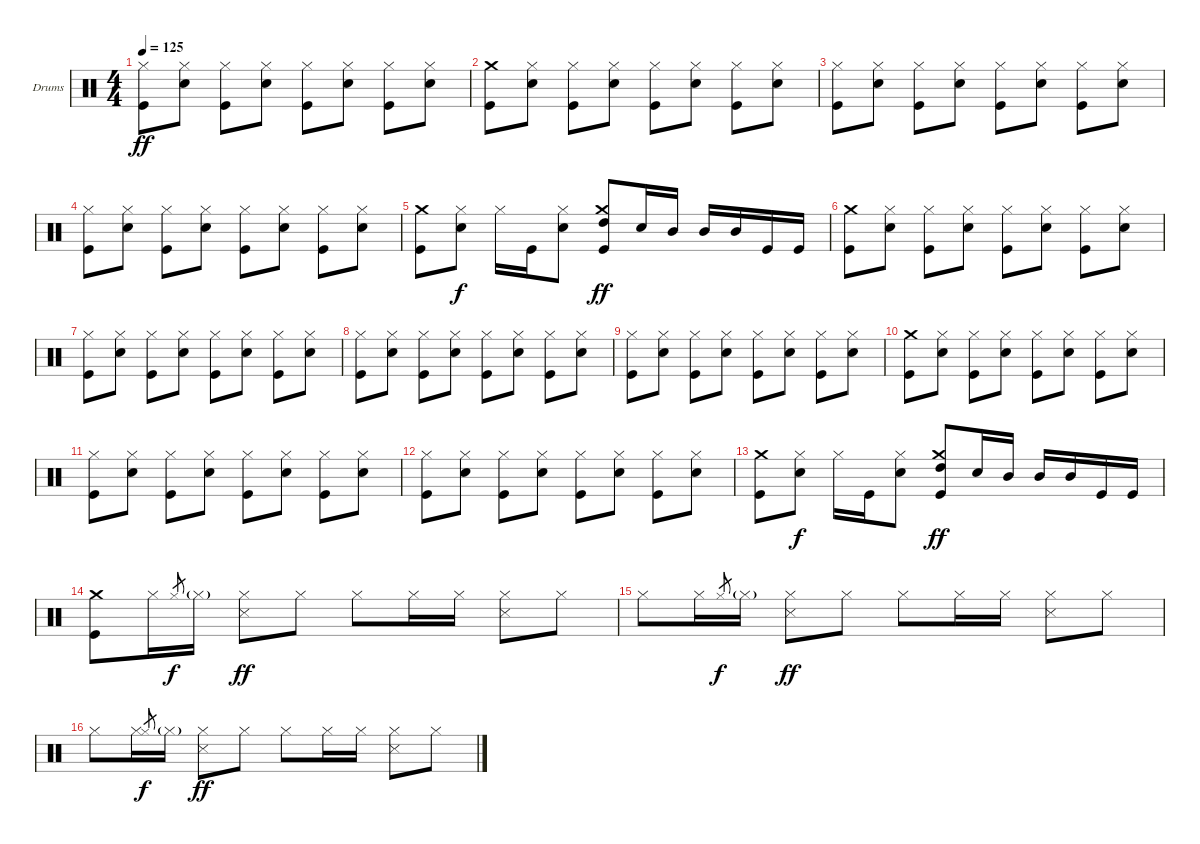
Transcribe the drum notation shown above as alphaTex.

\defaultSystemsLayout 4
\bracketExtendMode groupsimilarinstruments
\firstSystemTrackNameOrientation horizontal
\otherSystemsTrackNameOrientation horizontal
\track ("Drumkit" "Drums") {instrument percussion}
\staff {score}
\articulation defaults
\ts (4 4)
\tempo 125
\clef neutral
\ks c
("Kick (hit)" "Hi-Hat (closed)").8{dy ff} ("Snare (hit) 2" "Hi-Hat (closed)").8 ("Kick (hit)" "Hi-Hat (closed)").8 ("Snare (hit) 2" "Hi-Hat (closed)").8 ("Kick (hit)" "Hi-Hat (closed)").8 ("Snare (hit) 2" "Hi-Hat (closed)").8 ("Kick (hit)" "Hi-Hat (closed)").8 ("Snare (hit) 2" "Hi-Hat (closed)").8 |
("Kick (hit)" "Crash medium (hit)").8 ("Snare (hit) 2" "Hi-Hat (closed)").8 ("Kick (hit)" "Hi-Hat (closed)").8 ("Snare (hit) 2" "Hi-Hat (closed)").8 ("Kick (hit)" "Hi-Hat (closed)").8 ("Snare (hit) 2" "Hi-Hat (closed)").8 ("Kick (hit)" "Hi-Hat (closed)").8 ("Snare (hit) 2" "Hi-Hat (closed)").8 |
("Kick (hit)" "Hi-Hat (closed)").8 ("Snare (hit) 2" "Hi-Hat (closed)").8 ("Kick (hit)" "Hi-Hat (closed)").8 ("Snare (hit) 2" "Hi-Hat (closed)").8 ("Kick (hit)" "Hi-Hat (closed)").8 ("Snare (hit) 2" "Hi-Hat (closed)").8 ("Kick (hit)" "Hi-Hat (closed)").8 ("Snare (hit) 2" "Hi-Hat (closed)").8 |
("Kick (hit)" "Hi-Hat (closed)").8 ("Snare (hit) 2" "Hi-Hat (closed)").8 ("Kick (hit)" "Hi-Hat (closed)").8 ("Snare (hit) 2" "Hi-Hat (closed)").8 ("Kick (hit)" "Hi-Hat (closed)").8 ("Snare (hit) 2" "Hi-Hat (closed)").8 ("Kick (hit)" "Hi-Hat (closed)").8 ("Snare (hit) 2" "Hi-Hat (closed)").8 |
("Kick (hit)" "Crash medium (hit)").8 ("Snare (hit) 2" "Hi-Hat (closed)").8{dy f} "Hi-Hat (closed)".16 "Kick (hit)".16 ("Snare (hit) 2" "Hi-Hat (closed)").8 ("Kick (hit)" "Crash medium (hit)" "High Tom (hit)").8{dy ff} "Snare (hit) 2".16 "Mid Tom (hit)".16 "Mid Tom (hit)".16 "Mid Tom (hit)".16 "Kick (hit)".16 "Kick (hit)".16 |
("Kick (hit)" "Crash medium (hit)").8 ("Snare (hit) 2" "Hi-Hat (closed)").8 ("Kick (hit)" "Hi-Hat (closed)").8 ("Snare (hit) 2" "Hi-Hat (closed)").8 ("Kick (hit)" "Hi-Hat (closed)").8 ("Snare (hit) 2" "Hi-Hat (closed)").8 ("Kick (hit)" "Hi-Hat (closed)").8 ("Snare (hit) 2" "Hi-Hat (closed)").8 |
("Kick (hit)" "Hi-Hat (closed)").8 ("Snare (hit) 2" "Hi-Hat (closed)").8 ("Kick (hit)" "Hi-Hat (closed)").8 ("Snare (hit) 2" "Hi-Hat (closed)").8 ("Kick (hit)" "Hi-Hat (closed)").8 ("Snare (hit) 2" "Hi-Hat (closed)").8 ("Kick (hit)" "Hi-Hat (closed)").8 ("Snare (hit) 2" "Hi-Hat (closed)").8 |
("Kick (hit)" "Hi-Hat (closed)").8 ("Snare (hit) 2" "Hi-Hat (closed)").8 ("Kick (hit)" "Hi-Hat (closed)").8 ("Snare (hit) 2" "Hi-Hat (closed)").8 ("Kick (hit)" "Hi-Hat (closed)").8 ("Snare (hit) 2" "Hi-Hat (closed)").8 ("Kick (hit)" "Hi-Hat (closed)").8 ("Snare (hit) 2" "Hi-Hat (closed)").8 |
("Kick (hit)" "Hi-Hat (closed)").8 ("Snare (hit) 2" "Hi-Hat (closed)").8 ("Kick (hit)" "Hi-Hat (closed)").8 ("Snare (hit) 2" "Hi-Hat (closed)").8 ("Kick (hit)" "Hi-Hat (closed)").8 ("Snare (hit) 2" "Hi-Hat (closed)").8 ("Kick (hit)" "Hi-Hat (closed)").8 ("Snare (hit) 2" "Hi-Hat (closed)").8 |
("Kick (hit)" "Crash medium (hit)").8 ("Snare (hit) 2" "Hi-Hat (closed)").8 ("Kick (hit)" "Hi-Hat (closed)").8 ("Snare (hit) 2" "Hi-Hat (closed)").8 ("Kick (hit)" "Hi-Hat (closed)").8 ("Snare (hit) 2" "Hi-Hat (closed)").8 ("Kick (hit)" "Hi-Hat (closed)").8 ("Snare (hit) 2" "Hi-Hat (closed)").8 |
("Kick (hit)" "Hi-Hat (closed)").8 ("Snare (hit) 2" "Hi-Hat (closed)").8 ("Kick (hit)" "Hi-Hat (closed)").8 ("Snare (hit) 2" "Hi-Hat (closed)").8 ("Kick (hit)" "Hi-Hat (closed)").8 ("Snare (hit) 2" "Hi-Hat (closed)").8 ("Kick (hit)" "Hi-Hat (closed)").8 ("Snare (hit) 2" "Hi-Hat (closed)").8 |
("Kick (hit)" "Hi-Hat (closed)").8 ("Snare (hit) 2" "Hi-Hat (closed)").8 ("Kick (hit)" "Hi-Hat (closed)").8 ("Snare (hit) 2" "Hi-Hat (closed)").8 ("Kick (hit)" "Hi-Hat (closed)").8 ("Snare (hit) 2" "Hi-Hat (closed)").8 ("Kick (hit)" "Hi-Hat (closed)").8 ("Snare (hit) 2" "Hi-Hat (closed)").8 |
("Kick (hit)" "Crash medium (hit)").8 ("Snare (hit) 2" "Hi-Hat (closed)").8{dy f} "Hi-Hat (closed)".16 "Kick (hit)".16 ("Snare (hit) 2" "Hi-Hat (closed)").8 ("Kick (hit)" "Crash medium (hit)" "High Tom (hit)").8{dy ff} "Snare (hit) 2".16 "Mid Tom (hit)".16 "Mid Tom (hit)".16 "Mid Tom (hit)".16 "Kick (hit)".16 "Kick (hit)".16 |
("Kick (hit)" "Crash medium (hit)").8 "Hi-Hat (closed)".16 "Hi-Hat (closed)".8{gr dy f} "Hi-Hat (closed)"{g}.16 ("Hi-Hat (closed)" "Snare (side stick) 3").8{dy ff} "Hi-Hat (closed)".8 "Hi-Hat (closed)".8 "Hi-Hat (closed)".16 "Hi-Hat (closed)".16 ("Hi-Hat (closed)" "Snare (side stick) 3").8 "Hi-Hat (closed)".8 |
"Hi-Hat (closed)".8 "Hi-Hat (closed)".16 "Hi-Hat (closed)".8{gr dy f} "Hi-Hat (closed)"{g}.16 ("Hi-Hat (closed)" "Snare (side stick) 3").8{dy ff} "Hi-Hat (closed)".8 "Hi-Hat (closed)".8 "Hi-Hat (closed)".16 "Hi-Hat (closed)".16 ("Hi-Hat (closed)" "Snare (side stick) 3").8 "Hi-Hat (closed)".8 |
"Hi-Hat (closed)".8 "Hi-Hat (closed)".16 "Hi-Hat (closed)".8{gr dy f} "Hi-Hat (closed)"{g}.16 ("Hi-Hat (closed)" "Snare (side stick) 3").8{dy ff} "Hi-Hat (closed)".8 "Hi-Hat (closed)".8 "Hi-Hat (closed)".16 "Hi-Hat (closed)".16 ("Hi-Hat (closed)" "Snare (side stick) 3").8 "Hi-Hat (closed)".8
